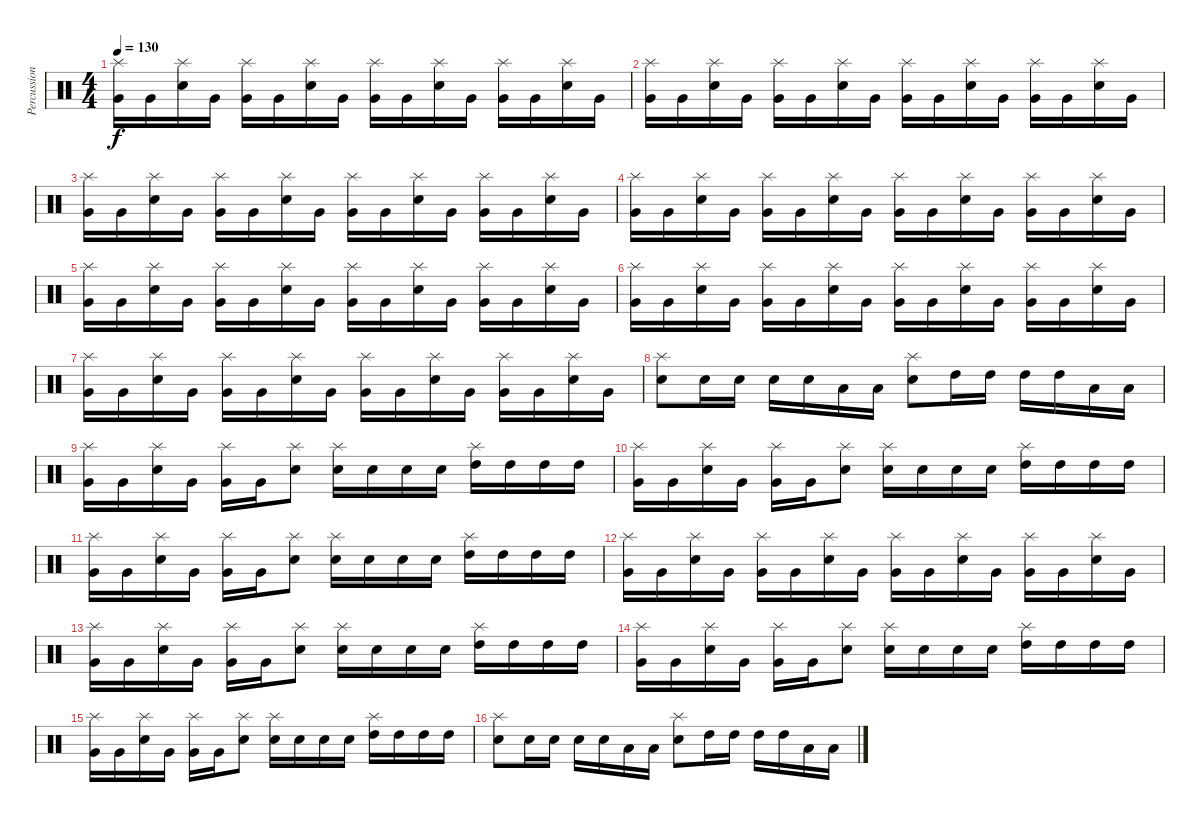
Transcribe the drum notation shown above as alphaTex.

\track ("Percussion" "Percussion") {instrument percussion}
\staff {score}
\articulation defaults
\ts (4 4)
\tempo 130
\clef neutral
\ks c
("Very Low Tom (hit)" "Splash (hit)").16{dy f} "Very Low Tom (hit)".16 ("Snare (hit) 2" "Splash (hit)").16 "Very Low Tom (hit)".16 ("Very Low Tom (hit)" "Splash (hit)").16 "Very Low Tom (hit)".16 ("Snare (hit) 2" "Splash (hit)").16 "Very Low Tom (hit)".16 ("Very Low Tom (hit)" "Splash (hit)").16 "Very Low Tom (hit)".16 ("Snare (hit) 2" "Splash (hit)").16 "Very Low Tom (hit)".16 ("Very Low Tom (hit)" "Splash (hit)").16 "Very Low Tom (hit)".16 ("Snare (hit) 2" "Splash (hit)").16 "Very Low Tom (hit)".16 |
("Very Low Tom (hit)" "Splash (hit)").16 "Very Low Tom (hit)".16 ("Snare (hit) 2" "Splash (hit)").16 "Very Low Tom (hit)".16 ("Very Low Tom (hit)" "Splash (hit)").16 "Very Low Tom (hit)".16 ("Snare (hit) 2" "Splash (hit)").16 "Very Low Tom (hit)".16 ("Very Low Tom (hit)" "Splash (hit)").16 "Very Low Tom (hit)".16 ("Snare (hit) 2" "Splash (hit)").16 "Very Low Tom (hit)".16 ("Very Low Tom (hit)" "Splash (hit)").16 "Very Low Tom (hit)".16 ("Snare (hit) 2" "Splash (hit)").16 "Very Low Tom (hit)".16 |
("Very Low Tom (hit)" "Splash (hit)").16 "Very Low Tom (hit)".16 ("Snare (hit) 2" "Splash (hit)").16 "Very Low Tom (hit)".16 ("Very Low Tom (hit)" "Splash (hit)").16 "Very Low Tom (hit)".16 ("Snare (hit) 2" "Splash (hit)").16 "Very Low Tom (hit)".16 ("Very Low Tom (hit)" "Splash (hit)").16 "Very Low Tom (hit)".16 ("Snare (hit) 2" "Splash (hit)").16 "Very Low Tom (hit)".16 ("Very Low Tom (hit)" "Splash (hit)").16 "Very Low Tom (hit)".16 ("Snare (hit) 2" "Splash (hit)").16 "Very Low Tom (hit)".16 |
("Very Low Tom (hit)" "Splash (hit)").16 "Very Low Tom (hit)".16 ("Snare (hit) 2" "Splash (hit)").16 "Very Low Tom (hit)".16 ("Very Low Tom (hit)" "Splash (hit)").16 "Very Low Tom (hit)".16 ("Snare (hit) 2" "Splash (hit)").16 "Very Low Tom (hit)".16 ("Very Low Tom (hit)" "Splash (hit)").16 "Very Low Tom (hit)".16 ("Snare (hit) 2" "Splash (hit)").16 "Very Low Tom (hit)".16 ("Very Low Tom (hit)" "Splash (hit)").16 "Very Low Tom (hit)".16 ("Snare (hit) 2" "Splash (hit)").16 "Very Low Tom (hit)".16 |
("Very Low Tom (hit)" "Splash (hit)").16 "Very Low Tom (hit)".16 ("Snare (hit) 2" "Splash (hit)").16 "Very Low Tom (hit)".16 ("Very Low Tom (hit)" "Splash (hit)").16 "Very Low Tom (hit)".16 ("Snare (hit) 2" "Splash (hit)").16 "Very Low Tom (hit)".16 ("Very Low Tom (hit)" "Splash (hit)").16 "Very Low Tom (hit)".16 ("Snare (hit) 2" "Splash (hit)").16 "Very Low Tom (hit)".16 ("Very Low Tom (hit)" "Splash (hit)").16 "Very Low Tom (hit)".16 ("Snare (hit) 2" "Splash (hit)").16 "Very Low Tom (hit)".16 |
("Very Low Tom (hit)" "Splash (hit)").16 "Very Low Tom (hit)".16 ("Snare (hit) 2" "Splash (hit)").16 "Very Low Tom (hit)".16 ("Very Low Tom (hit)" "Splash (hit)").16 "Very Low Tom (hit)".16 ("Snare (hit) 2" "Splash (hit)").16 "Very Low Tom (hit)".16 ("Very Low Tom (hit)" "Splash (hit)").16 "Very Low Tom (hit)".16 ("Snare (hit) 2" "Splash (hit)").16 "Very Low Tom (hit)".16 ("Very Low Tom (hit)" "Splash (hit)").16 "Very Low Tom (hit)".16 ("Snare (hit) 2" "Splash (hit)").16 "Very Low Tom (hit)".16 |
("Very Low Tom (hit)" "Splash (hit)").16 "Very Low Tom (hit)".16 ("Snare (hit) 2" "Splash (hit)").16 "Very Low Tom (hit)".16 ("Very Low Tom (hit)" "Splash (hit)").16 "Very Low Tom (hit)".16 ("Snare (hit) 2" "Splash (hit)").16 "Very Low Tom (hit)".16 ("Very Low Tom (hit)" "Splash (hit)").16 "Very Low Tom (hit)".16 ("Snare (hit) 2" "Splash (hit)").16 "Very Low Tom (hit)".16 ("Very Low Tom (hit)" "Splash (hit)").16 "Very Low Tom (hit)".16 ("Snare (hit) 2" "Splash (hit)").16 "Very Low Tom (hit)".16 |
("Snare (hit) 2" "Splash (hit)").8 "Snare (hit) 2".16 "Snare (hit) 2".16 "Snare (hit) 2".16 "Snare (hit) 2".16 "Low Tom (hit)".16 "Low Tom (hit)".16 ("Snare (hit) 2" "Splash (hit)").8 "High Tom (hit)".16 "High Tom (hit)".16 "High Tom (hit)".16 "High Tom (hit)".16 "Low Tom (hit)".16 "Low Tom (hit)".16 |
("Very Low Tom (hit)" "Splash (hit)").16 "Very Low Tom (hit)".16 ("Snare (hit) 2" "Splash (hit)").16 "Very Low Tom (hit)".16 ("Very Low Tom (hit)" "Splash (hit)").16 "Very Low Tom (hit)".16 ("Snare (hit) 2" "Splash (hit)").8 ("Snare (hit) 2" "Splash (hit)").16 "Snare (hit) 2".16 "Snare (hit) 2".16 "Snare (hit) 2".16 ("High Tom (hit)" "Splash (hit)").16 "High Tom (hit)".16 "High Tom (hit)".16 "High Tom (hit)".16 |
("Very Low Tom (hit)" "Splash (hit)").16 "Very Low Tom (hit)".16 ("Snare (hit) 2" "Splash (hit)").16 "Very Low Tom (hit)".16 ("Very Low Tom (hit)" "Splash (hit)").16 "Very Low Tom (hit)".16 ("Snare (hit) 2" "Splash (hit)").8 ("Snare (hit) 2" "Splash (hit)").16 "Snare (hit) 2".16 "Snare (hit) 2".16 "Snare (hit) 2".16 ("High Tom (hit)" "Splash (hit)").16 "High Tom (hit)".16 "High Tom (hit)".16 "High Tom (hit)".16 |
("Very Low Tom (hit)" "Splash (hit)").16 "Very Low Tom (hit)".16 ("Snare (hit) 2" "Splash (hit)").16 "Very Low Tom (hit)".16 ("Very Low Tom (hit)" "Splash (hit)").16 "Very Low Tom (hit)".16 ("Snare (hit) 2" "Splash (hit)").8 ("Snare (hit) 2" "Splash (hit)").16 "Snare (hit) 2".16 "Snare (hit) 2".16 "Snare (hit) 2".16 ("High Tom (hit)" "Splash (hit)").16 "High Tom (hit)".16 "High Tom (hit)".16 "High Tom (hit)".16 |
("Very Low Tom (hit)" "Splash (hit)").16 "Very Low Tom (hit)".16 ("Snare (hit) 2" "Splash (hit)").16 "Very Low Tom (hit)".16 ("Very Low Tom (hit)" "Splash (hit)").16 "Very Low Tom (hit)".16 ("Snare (hit) 2" "Splash (hit)").16 "Very Low Tom (hit)".16 ("Very Low Tom (hit)" "Splash (hit)").16 "Very Low Tom (hit)".16 ("Snare (hit) 2" "Splash (hit)").16 "Very Low Tom (hit)".16 ("Very Low Tom (hit)" "Splash (hit)").16 "Very Low Tom (hit)".16 ("Snare (hit) 2" "Splash (hit)").16 "Very Low Tom (hit)".16 |
("Very Low Tom (hit)" "Splash (hit)").16 "Very Low Tom (hit)".16 ("Snare (hit) 2" "Splash (hit)").16 "Very Low Tom (hit)".16 ("Very Low Tom (hit)" "Splash (hit)").16 "Very Low Tom (hit)".16 ("Snare (hit) 2" "Splash (hit)").8 ("Snare (hit) 2" "Splash (hit)").16 "Snare (hit) 2".16 "Snare (hit) 2".16 "Snare (hit) 2".16 ("High Tom (hit)" "Splash (hit)").16 "High Tom (hit)".16 "High Tom (hit)".16 "High Tom (hit)".16 |
("Very Low Tom (hit)" "Splash (hit)").16 "Very Low Tom (hit)".16 ("Snare (hit) 2" "Splash (hit)").16 "Very Low Tom (hit)".16 ("Very Low Tom (hit)" "Splash (hit)").16 "Very Low Tom (hit)".16 ("Snare (hit) 2" "Splash (hit)").8 ("Snare (hit) 2" "Splash (hit)").16 "Snare (hit) 2".16 "Snare (hit) 2".16 "Snare (hit) 2".16 ("High Tom (hit)" "Splash (hit)").16 "High Tom (hit)".16 "High Tom (hit)".16 "High Tom (hit)".16 |
("Very Low Tom (hit)" "Splash (hit)").16 "Very Low Tom (hit)".16 ("Snare (hit) 2" "Splash (hit)").16 "Very Low Tom (hit)".16 ("Very Low Tom (hit)" "Splash (hit)").16 "Very Low Tom (hit)".16 ("Snare (hit) 2" "Splash (hit)").8 ("Snare (hit) 2" "Splash (hit)").16 "Snare (hit) 2".16 "Snare (hit) 2".16 "Snare (hit) 2".16 ("High Tom (hit)" "Splash (hit)").16 "High Tom (hit)".16 "High Tom (hit)".16 "High Tom (hit)".16 |
("Snare (hit) 2" "Splash (hit)").8 "Snare (hit) 2".16 "Snare (hit) 2".16 "Snare (hit) 2".16 "Snare (hit) 2".16 "Low Tom (hit)".16 "Low Tom (hit)".16 ("Snare (hit) 2" "Splash (hit)").8 "High Tom (hit)".16 "High Tom (hit)".16 "High Tom (hit)".16 "High Tom (hit)".16 "Low Tom (hit)".16 "Low Tom (hit)".16
